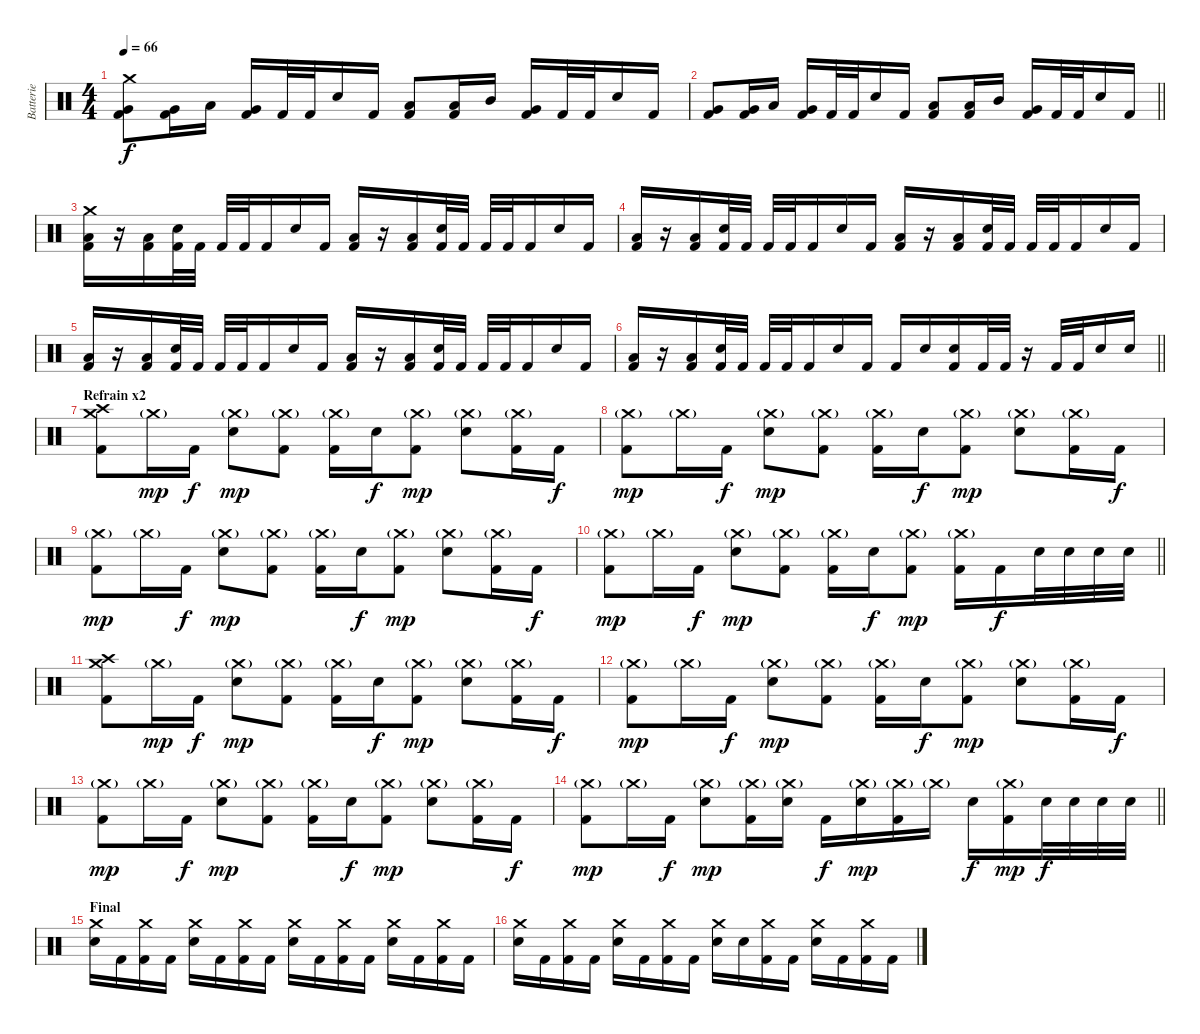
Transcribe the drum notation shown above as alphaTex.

\track ("Batterie" "Batterie") {instrument percussion}
\staff {score}
\articulation defaults
\ts (4 4)
\tempo 66
\clef neutral
\ks c
("Crash medium (hit)" "Very Low Tom (hit)" "Kick (hit) 2").8{dy f} ("Very Low Tom (hit)" "Kick (hit) 2").16 "Low Tom (hit)".16 ("Very Low Tom (hit)" "Kick (hit) 2").16 "Kick (hit) 2".32 "Kick (hit) 2".32 "Electric Snare (hit)".16 "Kick (hit) 2".16 ("Low Tom (hit)" "Kick (hit) 2").8 ("Low Tom (hit)" "Kick (hit) 2").16 "Mid Tom (hit)".16 ("Very Low Tom (hit)" "Kick (hit) 2").16 "Kick (hit) 2".32 "Kick (hit) 2".32 "Electric Snare (hit)".16 "Kick (hit) 2".16 |
\barLineRight lightlight
("Very Low Tom (hit)" "Kick (hit) 2").8 ("Very Low Tom (hit)" "Kick (hit) 2").16 "Low Tom (hit)".16 ("Very Low Tom (hit)" "Kick (hit) 2").16 "Kick (hit) 2".32 "Kick (hit) 2".32 "Electric Snare (hit)".16 "Kick (hit) 2".16 ("Low Tom (hit)" "Kick (hit) 2").8 ("Low Tom (hit)" "Kick (hit) 2").16 "Mid Tom (hit)".16 ("Very Low Tom (hit)" "Kick (hit) 2").16 "Kick (hit) 2".32 "Kick (hit) 2".32 "Electric Snare (hit)".16 "Kick (hit) 2".16 |
("Crash medium (hit)" "Low Tom (hit)" "Kick (hit) 2").16 r.16 ("Low Tom (hit)" "Kick (hit) 2").16 ("Electric Snare (hit)" "Kick (hit) 2").32 "Kick (hit) 2".32 "Kick (hit) 2".32 "Kick (hit) 2".32 "Kick (hit) 2".16 "Electric Snare (hit)".16 "Kick (hit) 2".16 ("Low Tom (hit)" "Kick (hit) 2").16 r.16 ("Low Tom (hit)" "Kick (hit) 2").16 ("Electric Snare (hit)" "Kick (hit) 2").32 "Kick (hit) 2".32 "Kick (hit) 2".32 "Kick (hit) 2".32 "Kick (hit) 2".16 "Electric Snare (hit)".16 "Kick (hit) 2".16 |
("Low Tom (hit)" "Kick (hit) 2").16 r.16 ("Low Tom (hit)" "Kick (hit) 2").16 ("Electric Snare (hit)" "Kick (hit) 2").32 "Kick (hit) 2".32 "Kick (hit) 2".32 "Kick (hit) 2".32 "Kick (hit) 2".16 "Electric Snare (hit)".16 "Kick (hit) 2".16 ("Low Tom (hit)" "Kick (hit) 2").16 r.16 ("Low Tom (hit)" "Kick (hit) 2").16 ("Electric Snare (hit)" "Kick (hit) 2").32 "Kick (hit) 2".32 "Kick (hit) 2".32 "Kick (hit) 2".32 "Kick (hit) 2".16 "Electric Snare (hit)".16 "Kick (hit) 2".16 |
("Low Tom (hit)" "Kick (hit) 2").16 r.16 ("Low Tom (hit)" "Kick (hit) 2").16 ("Electric Snare (hit)" "Kick (hit) 2").32 "Kick (hit) 2".32 "Kick (hit) 2".32 "Kick (hit) 2".32 "Kick (hit) 2".16 "Electric Snare (hit)".16 "Kick (hit) 2".16 ("Low Tom (hit)" "Kick (hit) 2").16 r.16 ("Low Tom (hit)" "Kick (hit) 2").16 ("Electric Snare (hit)" "Kick (hit) 2").32 "Kick (hit) 2".32 "Kick (hit) 2".32 "Kick (hit) 2".32 "Kick (hit) 2".16 "Electric Snare (hit)".16 "Kick (hit) 2".16 |
\barLineRight lightlight
("Low Tom (hit)" "Kick (hit) 2").16 r.16 ("Low Tom (hit)" "Kick (hit) 2").16 ("Electric Snare (hit)" "Kick (hit) 2").32 "Kick (hit) 2".32 "Kick (hit) 2".32 "Kick (hit) 2".32 "Kick (hit) 2".16 "Electric Snare (hit)".16 "Kick (hit) 2".16 "Kick (hit) 2".16 "Electric Snare (hit)".16 ("Electric Snare (hit)" "Kick (hit) 2").16 "Kick (hit) 2".32 "Kick (hit) 2".32 r.16 "Kick (hit) 2".32 "Kick (hit) 2".32 "Electric Snare (hit)".16 "Electric Snare (hit)".16 |
\section ("" "Refrain x2")
("Crash medium (hit)" "Crash high (hit)" "Kick (hit) 2").8 "Crash medium (hit)"{g}.16{dy mp} "Kick (hit) 2".16{dy f} ("Crash medium (hit)"{g} "Electric Snare (hit)").8{dy mp} ("Crash medium (hit)"{g} "Kick (hit) 2").8 ("Crash medium (hit)"{g} "Kick (hit) 2").16 "Electric Snare (hit)".16{dy f} ("Crash medium (hit)"{g} "Kick (hit) 2").8{dy mp} ("Crash medium (hit)"{g} "Electric Snare (hit)").8 ("Crash medium (hit)"{g} "Kick (hit) 2").16 "Kick (hit) 2".16{dy f} |
("Crash medium (hit)"{g} "Kick (hit) 2").8{dy mp} "Crash medium (hit)"{g}.16 "Kick (hit) 2".16{dy f} ("Crash medium (hit)"{g} "Electric Snare (hit)").8{dy mp} ("Crash medium (hit)"{g} "Kick (hit) 2").8 ("Crash medium (hit)"{g} "Kick (hit) 2").16 "Electric Snare (hit)".16{dy f} ("Crash medium (hit)"{g} "Kick (hit) 2").8{dy mp} ("Crash medium (hit)"{g} "Electric Snare (hit)").8 ("Crash medium (hit)"{g} "Kick (hit) 2").16 "Kick (hit) 2".16{dy f} |
("Crash medium (hit)"{g} "Kick (hit) 2").8{dy mp} "Crash medium (hit)"{g}.16 "Kick (hit) 2".16{dy f} ("Crash medium (hit)"{g} "Electric Snare (hit)").8{dy mp} ("Crash medium (hit)"{g} "Kick (hit) 2").8 ("Crash medium (hit)"{g} "Kick (hit) 2").16 "Electric Snare (hit)".16{dy f} ("Crash medium (hit)"{g} "Kick (hit) 2").8{dy mp} ("Crash medium (hit)"{g} "Electric Snare (hit)").8 ("Crash medium (hit)"{g} "Kick (hit) 2").16 "Kick (hit) 2".16{dy f} |
\barLineRight lightlight
("Crash medium (hit)"{g} "Kick (hit) 2").8{dy mp} "Crash medium (hit)"{g}.16 "Kick (hit) 2".16{dy f} ("Crash medium (hit)"{g} "Electric Snare (hit)").8{dy mp} ("Crash medium (hit)"{g} "Kick (hit) 2").8 ("Crash medium (hit)"{g} "Kick (hit) 2").16 "Electric Snare (hit)".16{dy f} ("Crash medium (hit)"{g} "Kick (hit) 2").8{dy mp} ("Crash medium (hit)"{g} "Kick (hit) 2").16 "Kick (hit) 2".16{dy f} "Electric Snare (hit)".32 "Electric Snare (hit)".32 "Electric Snare (hit)".32 "Electric Snare (hit)".32 |
("Crash medium (hit)" "Crash high (hit)" "Kick (hit) 2").8 "Crash medium (hit)"{g}.16{dy mp} "Kick (hit) 2".16{dy f} ("Crash medium (hit)"{g} "Electric Snare (hit)").8{dy mp} ("Crash medium (hit)"{g} "Kick (hit) 2").8 ("Crash medium (hit)"{g} "Kick (hit) 2").16 "Electric Snare (hit)".16{dy f} ("Crash medium (hit)"{g} "Kick (hit) 2").8{dy mp} ("Crash medium (hit)"{g} "Electric Snare (hit)").8 ("Crash medium (hit)"{g} "Kick (hit) 2").16 "Kick (hit) 2".16{dy f} |
("Crash medium (hit)"{g} "Kick (hit) 2").8{dy mp} "Crash medium (hit)"{g}.16 "Kick (hit) 2".16{dy f} ("Crash medium (hit)"{g} "Electric Snare (hit)").8{dy mp} ("Crash medium (hit)"{g} "Kick (hit) 2").8 ("Crash medium (hit)"{g} "Kick (hit) 2").16 "Electric Snare (hit)".16{dy f} ("Crash medium (hit)"{g} "Kick (hit) 2").8{dy mp} ("Crash medium (hit)"{g} "Electric Snare (hit)").8 ("Crash medium (hit)"{g} "Kick (hit) 2").16 "Kick (hit) 2".16{dy f} |
("Crash medium (hit)"{g} "Kick (hit) 2").8{dy mp} "Crash medium (hit)"{g}.16 "Kick (hit) 2".16{dy f} ("Crash medium (hit)"{g} "Electric Snare (hit)").8{dy mp} ("Crash medium (hit)"{g} "Kick (hit) 2").8 ("Crash medium (hit)"{g} "Kick (hit) 2").16 "Electric Snare (hit)".16{dy f} ("Crash medium (hit)"{g} "Kick (hit) 2").8{dy mp} ("Crash medium (hit)"{g} "Electric Snare (hit)").8 ("Crash medium (hit)"{g} "Kick (hit) 2").16 "Kick (hit) 2".16{dy f} |
\barLineRight lightlight
("Crash medium (hit)"{g} "Kick (hit) 2").8{dy mp} "Crash medium (hit)"{g}.16 "Kick (hit) 2".16{dy f} ("Crash medium (hit)"{g} "Electric Snare (hit)").8{dy mp} ("Crash medium (hit)"{g} "Kick (hit) 2").16 ("Crash medium (hit)"{g} "Electric Snare (hit)").16 "Kick (hit) 2".16{dy f} ("Crash medium (hit)"{g} "Electric Snare (hit)").16{dy mp} ("Crash medium (hit)"{g} "Kick (hit) 2").16 "Crash medium (hit)"{g}.16 "Electric Snare (hit)".16{dy f} ("Crash medium (hit)"{g} "Kick (hit) 2").16{dy mp} "Electric Snare (hit)".32{dy f} "Electric Snare (hit)".32 "Electric Snare (hit)".32 "Electric Snare (hit)".32 |
\section ("" "Final")
("Crash medium (hit)" "Electric Snare (hit)").16 "Kick (hit) 2".16 ("Crash medium (hit)" "Kick (hit) 2").16 "Kick (hit) 2".16 ("Crash medium (hit)" "Electric Snare (hit)").16 "Kick (hit) 2".16 ("Crash medium (hit)" "Kick (hit) 2").16 "Kick (hit) 2".16 ("Crash medium (hit)" "Electric Snare (hit)").16 "Kick (hit) 2".16 ("Crash medium (hit)" "Kick (hit) 2").16 "Kick (hit) 2".16 ("Crash medium (hit)" "Electric Snare (hit)").16 "Kick (hit) 2".16 ("Crash medium (hit)" "Kick (hit) 2").16 "Kick (hit) 2".16 |
("Crash medium (hit)" "Electric Snare (hit)").16 "Kick (hit) 2".16 ("Crash medium (hit)" "Kick (hit) 2").16 "Kick (hit) 2".16 ("Crash medium (hit)" "Electric Snare (hit)").16 "Kick (hit) 2".16 ("Crash medium (hit)" "Kick (hit) 2").16 "Kick (hit) 2".16 ("Crash medium (hit)" "Electric Snare (hit)").16 "Electric Snare (hit)".16 ("Crash medium (hit)" "Kick (hit) 2").16 "Kick (hit) 2".16 ("Crash medium (hit)" "Electric Snare (hit)").16 "Kick (hit) 2".16 ("Crash medium (hit)" "Kick (hit) 2").16 "Kick (hit) 2".16
